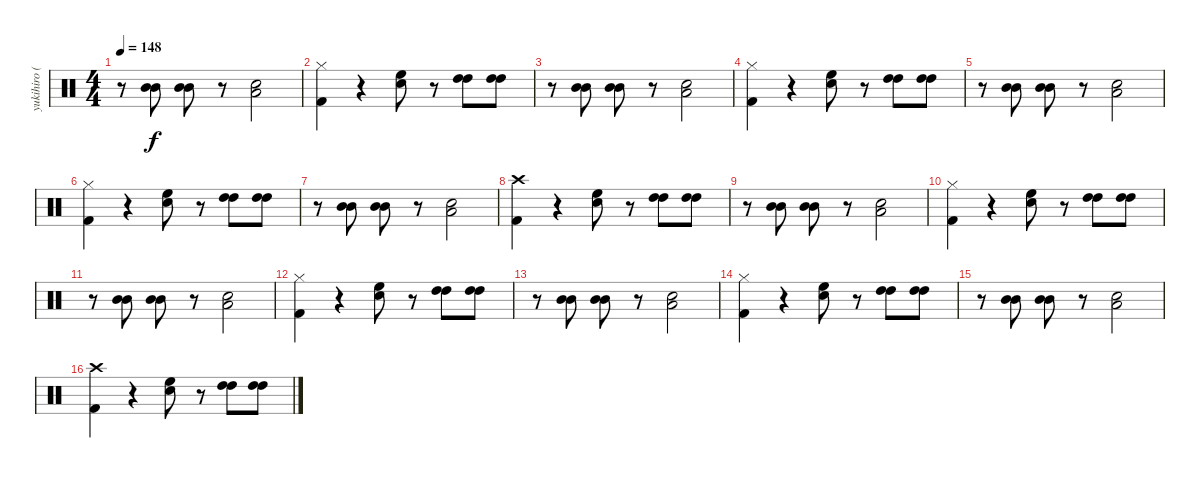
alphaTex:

\track ("yukihiro (Drums)" "yukihiro (") {instrument percussion}
\staff {score}
\articulation defaults
\ts (4 4)
\tempo 148
\clef neutral
\ks c
r.8{dy f} ("Mid Tom (hit)" "Mid Tom (hit)").8 ("Mid Tom (hit)" "Mid Tom (hit)").8 r.8 ("Electric Snare (hit)" "Low Tom (hit)").2 |
("Hi-Hat (closed)" "Kick (hit) 2").4 r.4 ("High Floor Tom (hit)" "Electric Snare (hit)").8 r.8 ("High Tom (hit)" "High Tom (hit)").8 ("High Tom (hit)" "High Tom (hit)").8 |
r.8 ("Mid Tom (hit)" "Mid Tom (hit)").8 ("Mid Tom (hit)" "Mid Tom (hit)").8 r.8 ("Electric Snare (hit)" "Low Tom (hit)").2 |
("Hi-Hat (closed)" "Kick (hit) 2").4 r.4 ("High Floor Tom (hit)" "Electric Snare (hit)").8 r.8 ("High Tom (hit)" "High Tom (hit)").8 ("High Tom (hit)" "High Tom (hit)").8 |
r.8 ("Mid Tom (hit)" "Mid Tom (hit)").8 ("Mid Tom (hit)" "Mid Tom (hit)").8 r.8 ("Electric Snare (hit)" "Low Tom (hit)").2 |
("Hi-Hat (closed)" "Kick (hit) 2").4 r.4 ("High Floor Tom (hit)" "Electric Snare (hit)").8 r.8 ("High Tom (hit)" "High Tom (hit)").8 ("High Tom (hit)" "High Tom (hit)").8 |
r.8 ("Mid Tom (hit)" "Mid Tom (hit)").8 ("Mid Tom (hit)" "Mid Tom (hit)").8 r.8 ("Electric Snare (hit)" "Low Tom (hit)").2 |
("Crash high (hit)" "Kick (hit) 2").4 r.4 ("High Floor Tom (hit)" "Electric Snare (hit)").8 r.8 ("High Tom (hit)" "High Tom (hit)").8 ("High Tom (hit)" "High Tom (hit)").8 |
r.8 ("Mid Tom (hit)" "Mid Tom (hit)").8 ("Mid Tom (hit)" "Mid Tom (hit)").8 r.8 ("Electric Snare (hit)" "Low Tom (hit)").2 |
("Hi-Hat (closed)" "Kick (hit) 2").4 r.4 ("High Floor Tom (hit)" "Electric Snare (hit)").8 r.8 ("High Tom (hit)" "High Tom (hit)").8 ("High Tom (hit)" "High Tom (hit)").8 |
r.8 ("Mid Tom (hit)" "Mid Tom (hit)").8 ("Mid Tom (hit)" "Mid Tom (hit)").8 r.8 ("Electric Snare (hit)" "Low Tom (hit)").2 |
("Hi-Hat (closed)" "Kick (hit) 2").4 r.4 ("High Floor Tom (hit)" "Electric Snare (hit)").8 r.8 ("High Tom (hit)" "High Tom (hit)").8 ("High Tom (hit)" "High Tom (hit)").8 |
r.8 ("Mid Tom (hit)" "Mid Tom (hit)").8 ("Mid Tom (hit)" "Mid Tom (hit)").8 r.8 ("Electric Snare (hit)" "Low Tom (hit)").2 |
("Hi-Hat (closed)" "Kick (hit) 2").4 r.4 ("High Floor Tom (hit)" "Electric Snare (hit)").8 r.8 ("High Tom (hit)" "High Tom (hit)").8 ("High Tom (hit)" "High Tom (hit)").8 |
r.8 ("Mid Tom (hit)" "Mid Tom (hit)").8 ("Mid Tom (hit)" "Mid Tom (hit)").8 r.8 ("Electric Snare (hit)" "Low Tom (hit)").2 |
("Crash high (hit)" "Kick (hit) 2").4 r.4 ("High Floor Tom (hit)" "Electric Snare (hit)").8 r.8 ("High Tom (hit)" "High Tom (hit)").8 ("High Tom (hit)" "High Tom (hit)").8
